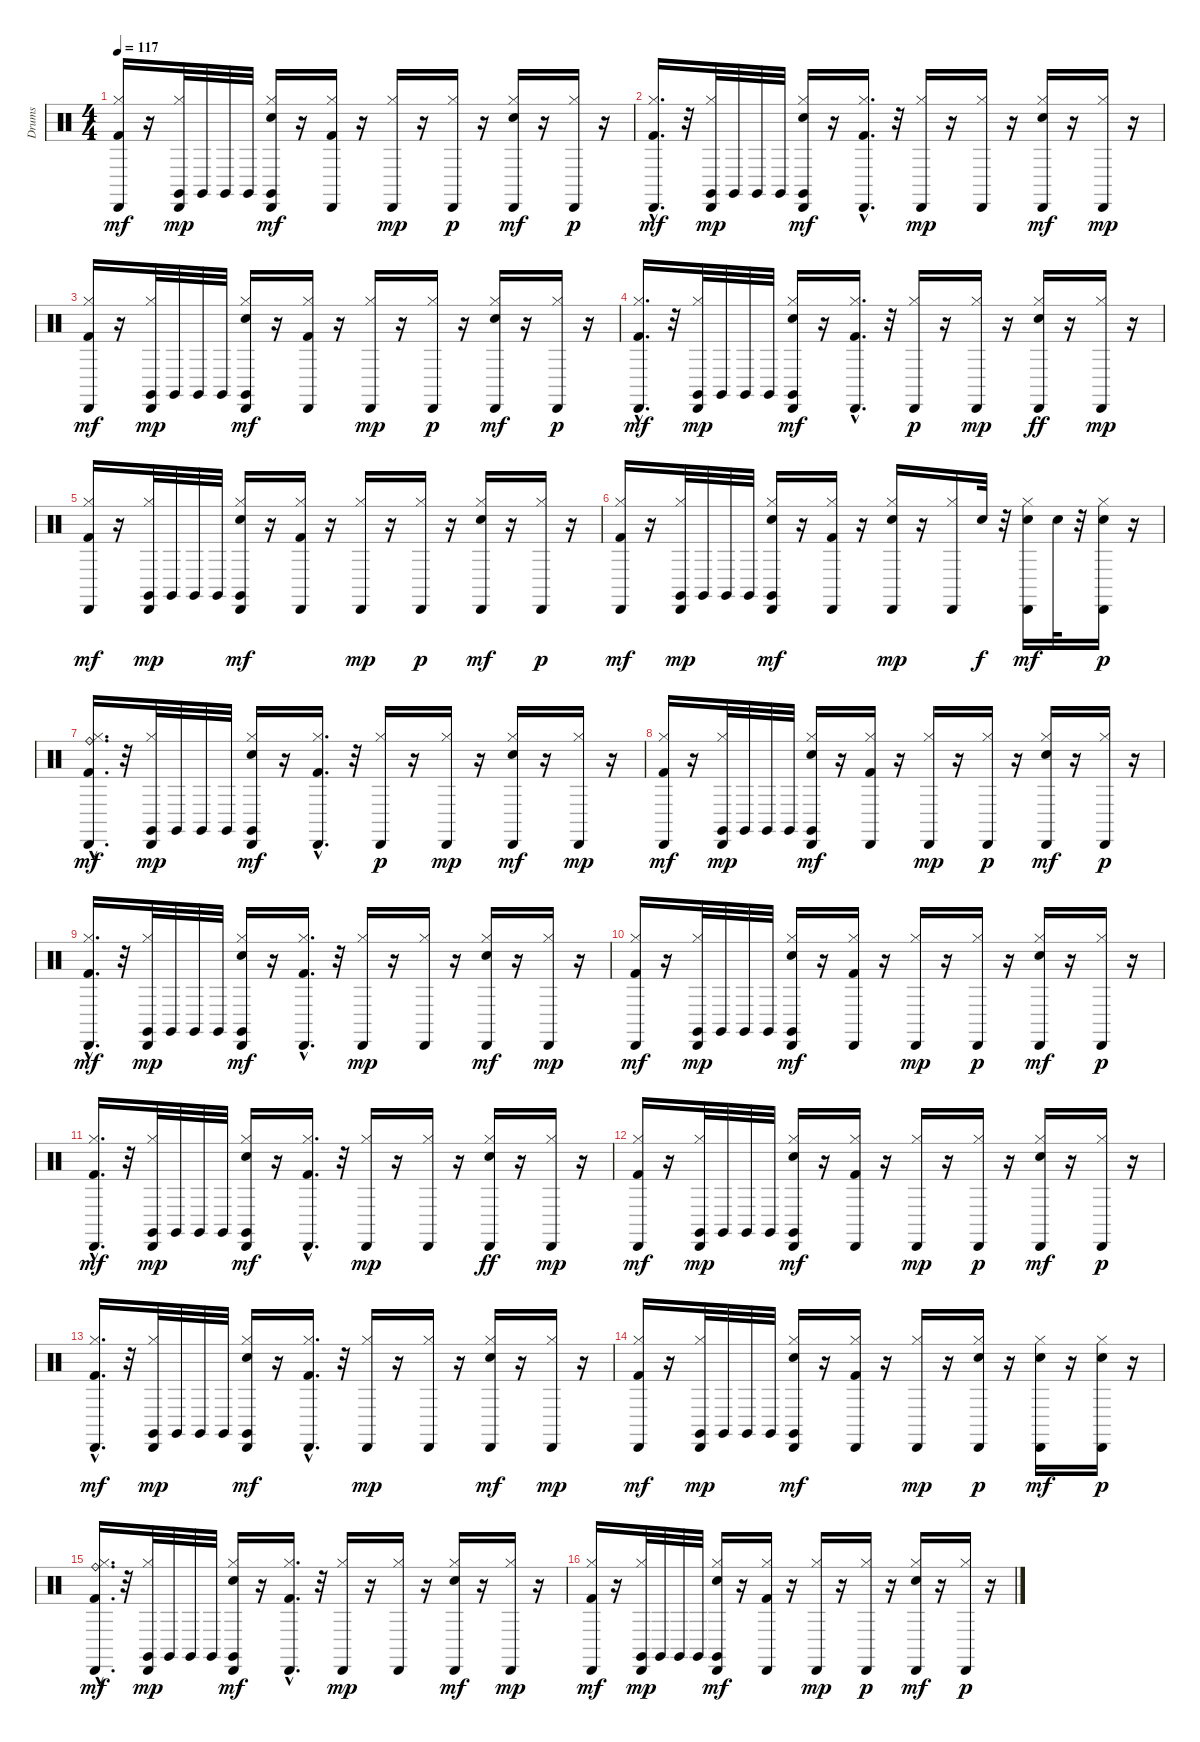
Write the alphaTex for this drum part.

\track ("Drums" "Drums") {instrument percussion}
\staff {score}
\articulation defaults
\ts (4 4)
\tempo 117
\clef neutral
\ks c
("Kick (hit) 2" "Hi-Hat (closed)" "Cabasa (hit)").16{dy mf} r.16 ("Hi-Hat (closed)" "Cabasa (hit)" "Claves (hit)").32{dy mp} "Claves (hit)".32 "Claves (hit)".32 "Claves (hit)".32 ("Electric Snare (hit)" "Hi-Hat (closed)" "Cabasa (hit)" "Claves (hit)").16{dy mf} r.16 ("Kick (hit) 2" "Hi-Hat (closed)" "Cabasa (hit)").16 r.16 ("Hi-Hat (closed)" "Cabasa (hit)").16{dy mp} r.16 ("Hi-Hat (closed)" "Cabasa (hit)").16{dy p} r.16 ("Electric Snare (hit)" "Hi-Hat (closed)" "Cabasa (hit)").16{dy mf} r.16 ("Hi-Hat (closed)" "Cabasa (hit)").16{dy p} r.16 |
("Kick (hit) 2"{hac} "Hi-Hat (closed)" "Cabasa (hit)").16{d dy mf} r.32 ("Hi-Hat (closed)" "Cabasa (hit)" "Claves (hit)").32{dy mp} "Claves (hit)".32 "Claves (hit)".32 "Claves (hit)".32 ("Electric Snare (hit)" "Hi-Hat (closed)" "Cabasa (hit)" "Claves (hit)").16{dy mf} r.16 ("Kick (hit) 2"{hac} "Hi-Hat (closed)" "Cabasa (hit)").16{d} r.32 ("Hi-Hat (closed)" "Cabasa (hit)").16{dy mp} r.16 ("Hi-Hat (closed)" "Cabasa (hit)").16 r.16 ("Electric Snare (hit)" "Hi-Hat (closed)" "Cabasa (hit)").16{dy mf} r.16 ("Hi-Hat (closed)" "Cabasa (hit)").16{dy mp} r.16 |
("Kick (hit) 2" "Hi-Hat (closed)" "Cabasa (hit)").16{dy mf} r.16 ("Hi-Hat (closed)" "Cabasa (hit)" "Claves (hit)").32{dy mp} "Claves (hit)".32 "Claves (hit)".32 "Claves (hit)".32 ("Electric Snare (hit)" "Hi-Hat (closed)" "Cabasa (hit)" "Claves (hit)").16{dy mf} r.16 ("Kick (hit) 2" "Hi-Hat (closed)" "Cabasa (hit)").16 r.16 ("Hi-Hat (closed)" "Cabasa (hit)").16{dy mp} r.16 ("Hi-Hat (closed)" "Cabasa (hit)").16{dy p} r.16 ("Electric Snare (hit)" "Hi-Hat (closed)" "Cabasa (hit)").16{dy mf} r.16 ("Hi-Hat (closed)" "Cabasa (hit)").16{dy p} r.16 |
("Kick (hit) 2"{hac} "Hi-Hat (closed)" "Cabasa (hit)").16{d dy mf} r.32 ("Hi-Hat (closed)" "Cabasa (hit)" "Claves (hit)").32{dy mp} "Claves (hit)".32 "Claves (hit)".32 "Claves (hit)".32 ("Electric Snare (hit)" "Hi-Hat (closed)" "Cabasa (hit)" "Claves (hit)").16{dy mf} r.16 ("Kick (hit) 2"{hac} "Hi-Hat (closed)" "Cabasa (hit)").16{d} r.32 ("Hi-Hat (closed)" "Cabasa (hit)").16{dy p} r.16 ("Hi-Hat (closed)" "Cabasa (hit)").16{dy mp} r.16 ("Electric Snare (hit)" "Hi-Hat (closed)" "Cabasa (hit)").16{dy ff} r.16 ("Hi-Hat (closed)" "Cabasa (hit)").16{dy mp} r.16 |
("Kick (hit) 2" "Hi-Hat (closed)" "Cabasa (hit)").16{dy mf} r.16 ("Hi-Hat (closed)" "Cabasa (hit)" "Claves (hit)").32{dy mp} "Claves (hit)".32 "Claves (hit)".32 "Claves (hit)".32 ("Electric Snare (hit)" "Hi-Hat (closed)" "Cabasa (hit)" "Claves (hit)").16{dy mf} r.16 ("Kick (hit) 2" "Hi-Hat (closed)" "Cabasa (hit)").16 r.16 ("Hi-Hat (closed)" "Cabasa (hit)").16{dy mp} r.16 ("Hi-Hat (closed)" "Cabasa (hit)").16{dy p} r.16 ("Electric Snare (hit)" "Hi-Hat (closed)" "Cabasa (hit)").16{dy mf} r.16 ("Hi-Hat (closed)" "Cabasa (hit)").16{dy p} r.16 |
("Kick (hit) 2" "Hi-Hat (closed)" "Cabasa (hit)").16{dy mf} r.16 ("Hi-Hat (closed)" "Cabasa (hit)" "Claves (hit)").32{dy mp} "Claves (hit)".32 "Claves (hit)".32 "Claves (hit)".32 ("Electric Snare (hit)" "Hi-Hat (closed)" "Cabasa (hit)" "Claves (hit)").16{dy mf} r.16 ("Kick (hit) 2" "Hi-Hat (closed)" "Cabasa (hit)").16 r.16 ("Electric Snare (hit)" "Hi-Hat (closed)" "Cabasa (hit)").16{dy mp} r.16 ("Hi-Hat (closed)" "Cabasa (hit)").16 "Electric Snare (hit)".32{dy f} r.32 ("Electric Snare (hit)" "Hi-Hat (closed)" "Cabasa (hit)").16{dy mf} "Electric Snare (hit)".32 r.32 ("Electric Snare (hit)" "Hi-Hat (closed)" "Cabasa (hit)").16{dy p} r.16 |
("Kick (hit) 2"{hac} "Hi-Hat (closed)" "Ride (bell)" "Cabasa (hit)").16{d dy mf} r.32 ("Hi-Hat (closed)" "Cabasa (hit)" "Claves (hit)").32{dy mp} "Claves (hit)".32 "Claves (hit)".32 "Claves (hit)".32 ("Electric Snare (hit)" "Hi-Hat (closed)" "Cabasa (hit)" "Claves (hit)").16{dy mf} r.16 ("Kick (hit) 2"{hac} "Hi-Hat (closed)" "Cabasa (hit)").16{d} r.32 ("Hi-Hat (closed)" "Cabasa (hit)").16{dy p} r.16 ("Hi-Hat (closed)" "Cabasa (hit)").16{dy mp} r.16 ("Electric Snare (hit)" "Hi-Hat (closed)" "Cabasa (hit)").16{dy mf} r.16 ("Hi-Hat (closed)" "Cabasa (hit)").16{dy mp} r.16 |
("Kick (hit) 2" "Hi-Hat (closed)" "Cabasa (hit)").16{dy mf} r.16 ("Hi-Hat (closed)" "Cabasa (hit)" "Claves (hit)").32{dy mp} "Claves (hit)".32 "Claves (hit)".32 "Claves (hit)".32 ("Electric Snare (hit)" "Hi-Hat (closed)" "Cabasa (hit)" "Claves (hit)").16{dy mf} r.16 ("Kick (hit) 2" "Hi-Hat (closed)" "Cabasa (hit)").16 r.16 ("Hi-Hat (closed)" "Cabasa (hit)").16{dy mp} r.16 ("Hi-Hat (closed)" "Cabasa (hit)").16{dy p} r.16 ("Electric Snare (hit)" "Hi-Hat (closed)" "Cabasa (hit)").16{dy mf} r.16 ("Hi-Hat (closed)" "Cabasa (hit)").16{dy p} r.16 |
("Kick (hit) 2"{hac} "Hi-Hat (closed)" "Cabasa (hit)").16{d dy mf} r.32 ("Hi-Hat (closed)" "Cabasa (hit)" "Claves (hit)").32{dy mp} "Claves (hit)".32 "Claves (hit)".32 "Claves (hit)".32 ("Electric Snare (hit)" "Hi-Hat (closed)" "Cabasa (hit)" "Claves (hit)").16{dy mf} r.16 ("Kick (hit) 2"{hac} "Hi-Hat (closed)" "Cabasa (hit)").16{d} r.32 ("Hi-Hat (closed)" "Cabasa (hit)").16{dy mp} r.16 ("Hi-Hat (closed)" "Cabasa (hit)").16 r.16 ("Electric Snare (hit)" "Hi-Hat (closed)" "Cabasa (hit)").16{dy mf} r.16 ("Hi-Hat (closed)" "Cabasa (hit)").16{dy mp} r.16 |
("Kick (hit) 2" "Hi-Hat (closed)" "Cabasa (hit)").16{dy mf} r.16 ("Hi-Hat (closed)" "Cabasa (hit)" "Claves (hit)").32{dy mp} "Claves (hit)".32 "Claves (hit)".32 "Claves (hit)".32 ("Electric Snare (hit)" "Hi-Hat (closed)" "Cabasa (hit)" "Claves (hit)").16{dy mf} r.16 ("Kick (hit) 2" "Hi-Hat (closed)" "Cabasa (hit)").16 r.16 ("Hi-Hat (closed)" "Cabasa (hit)").16{dy mp} r.16 ("Hi-Hat (closed)" "Cabasa (hit)").16{dy p} r.16 ("Electric Snare (hit)" "Hi-Hat (closed)" "Cabasa (hit)").16{dy mf} r.16 ("Hi-Hat (closed)" "Cabasa (hit)").16{dy p} r.16 |
("Kick (hit) 2"{hac} "Hi-Hat (closed)" "Cabasa (hit)").16{d dy mf} r.32 ("Hi-Hat (closed)" "Cabasa (hit)" "Claves (hit)").32{dy mp} "Claves (hit)".32 "Claves (hit)".32 "Claves (hit)".32 ("Electric Snare (hit)" "Hi-Hat (closed)" "Cabasa (hit)" "Claves (hit)").16{dy mf} r.16 ("Kick (hit) 2"{hac} "Hi-Hat (closed)" "Cabasa (hit)").16{d} r.32 ("Hi-Hat (closed)" "Cabasa (hit)").16{dy mp} r.16 ("Hi-Hat (closed)" "Cabasa (hit)").16 r.16 ("Electric Snare (hit)" "Hi-Hat (closed)" "Cabasa (hit)").16{dy ff} r.16 ("Hi-Hat (closed)" "Cabasa (hit)").16{dy mp} r.16 |
("Kick (hit) 2" "Hi-Hat (closed)" "Cabasa (hit)").16{dy mf} r.16 ("Hi-Hat (closed)" "Cabasa (hit)" "Claves (hit)").32{dy mp} "Claves (hit)".32 "Claves (hit)".32 "Claves (hit)".32 ("Electric Snare (hit)" "Hi-Hat (closed)" "Cabasa (hit)" "Claves (hit)").16{dy mf} r.16 ("Kick (hit) 2" "Hi-Hat (closed)" "Cabasa (hit)").16 r.16 ("Hi-Hat (closed)" "Cabasa (hit)").16{dy mp} r.16 ("Hi-Hat (closed)" "Cabasa (hit)").16{dy p} r.16 ("Electric Snare (hit)" "Hi-Hat (closed)" "Cabasa (hit)").16{dy mf} r.16 ("Hi-Hat (closed)" "Cabasa (hit)").16{dy p} r.16 |
("Kick (hit) 2"{hac} "Hi-Hat (closed)" "Cabasa (hit)").16{d dy mf} r.32 ("Hi-Hat (closed)" "Cabasa (hit)" "Claves (hit)").32{dy mp} "Claves (hit)".32 "Claves (hit)".32 "Claves (hit)".32 ("Electric Snare (hit)" "Hi-Hat (closed)" "Cabasa (hit)" "Claves (hit)").16{dy mf} r.16 ("Kick (hit) 2"{hac} "Hi-Hat (closed)" "Cabasa (hit)").16{d} r.32 ("Hi-Hat (closed)" "Cabasa (hit)").16{dy mp} r.16 ("Hi-Hat (closed)" "Cabasa (hit)").16 r.16 ("Electric Snare (hit)" "Hi-Hat (closed)" "Cabasa (hit)").16{dy mf} r.16 ("Hi-Hat (closed)" "Cabasa (hit)").16{dy mp} r.16 |
("Kick (hit) 2" "Hi-Hat (closed)" "Cabasa (hit)").16{dy mf} r.16 ("Hi-Hat (closed)" "Cabasa (hit)" "Claves (hit)").32{dy mp} "Claves (hit)".32 "Claves (hit)".32 "Claves (hit)".32 ("Electric Snare (hit)" "Hi-Hat (closed)" "Cabasa (hit)" "Claves (hit)").16{dy mf} r.16 ("Kick (hit) 2" "Hi-Hat (closed)" "Cabasa (hit)").16 r.16 ("Hi-Hat (closed)" "Cabasa (hit)").16{dy mp} r.16 ("Electric Snare (hit)" "Hi-Hat (closed)" "Cabasa (hit)").16{dy p} r.16 ("Electric Snare (hit)" "Hi-Hat (closed)" "Cabasa (hit)").16{dy mf} r.16 ("Electric Snare (hit)" "Hi-Hat (closed)" "Cabasa (hit)").16{dy p} r.16 |
("Kick (hit) 2"{hac} "Hi-Hat (closed)" "Ride (bell)" "Cabasa (hit)").16{d dy mf} r.32 ("Hi-Hat (closed)" "Cabasa (hit)" "Claves (hit)").32{dy mp} "Claves (hit)".32 "Claves (hit)".32 "Claves (hit)".32 ("Electric Snare (hit)" "Hi-Hat (closed)" "Cabasa (hit)" "Claves (hit)").16{dy mf} r.16 ("Kick (hit) 2"{hac} "Hi-Hat (closed)" "Cabasa (hit)").16{d} r.32 ("Hi-Hat (closed)" "Cabasa (hit)").16{dy mp} r.16 ("Hi-Hat (closed)" "Cabasa (hit)").16 r.16 ("Electric Snare (hit)" "Hi-Hat (closed)" "Cabasa (hit)").16{dy mf} r.16 ("Hi-Hat (closed)" "Cabasa (hit)").16{dy mp} r.16 |
("Kick (hit) 2" "Hi-Hat (closed)" "Cabasa (hit)").16{dy mf} r.16 ("Hi-Hat (closed)" "Cabasa (hit)" "Claves (hit)").32{dy mp} "Claves (hit)".32 "Claves (hit)".32 "Claves (hit)".32 ("Electric Snare (hit)" "Hi-Hat (closed)" "Cabasa (hit)" "Claves (hit)").16{dy mf} r.16 ("Kick (hit) 2" "Hi-Hat (closed)" "Cabasa (hit)").16 r.16 ("Hi-Hat (closed)" "Cabasa (hit)").16{dy mp} r.16 ("Hi-Hat (closed)" "Cabasa (hit)").16{dy p} r.16 ("Electric Snare (hit)" "Hi-Hat (closed)" "Cabasa (hit)").16{dy mf} r.16 ("Hi-Hat (closed)" "Cabasa (hit)").16{dy p} r.16
